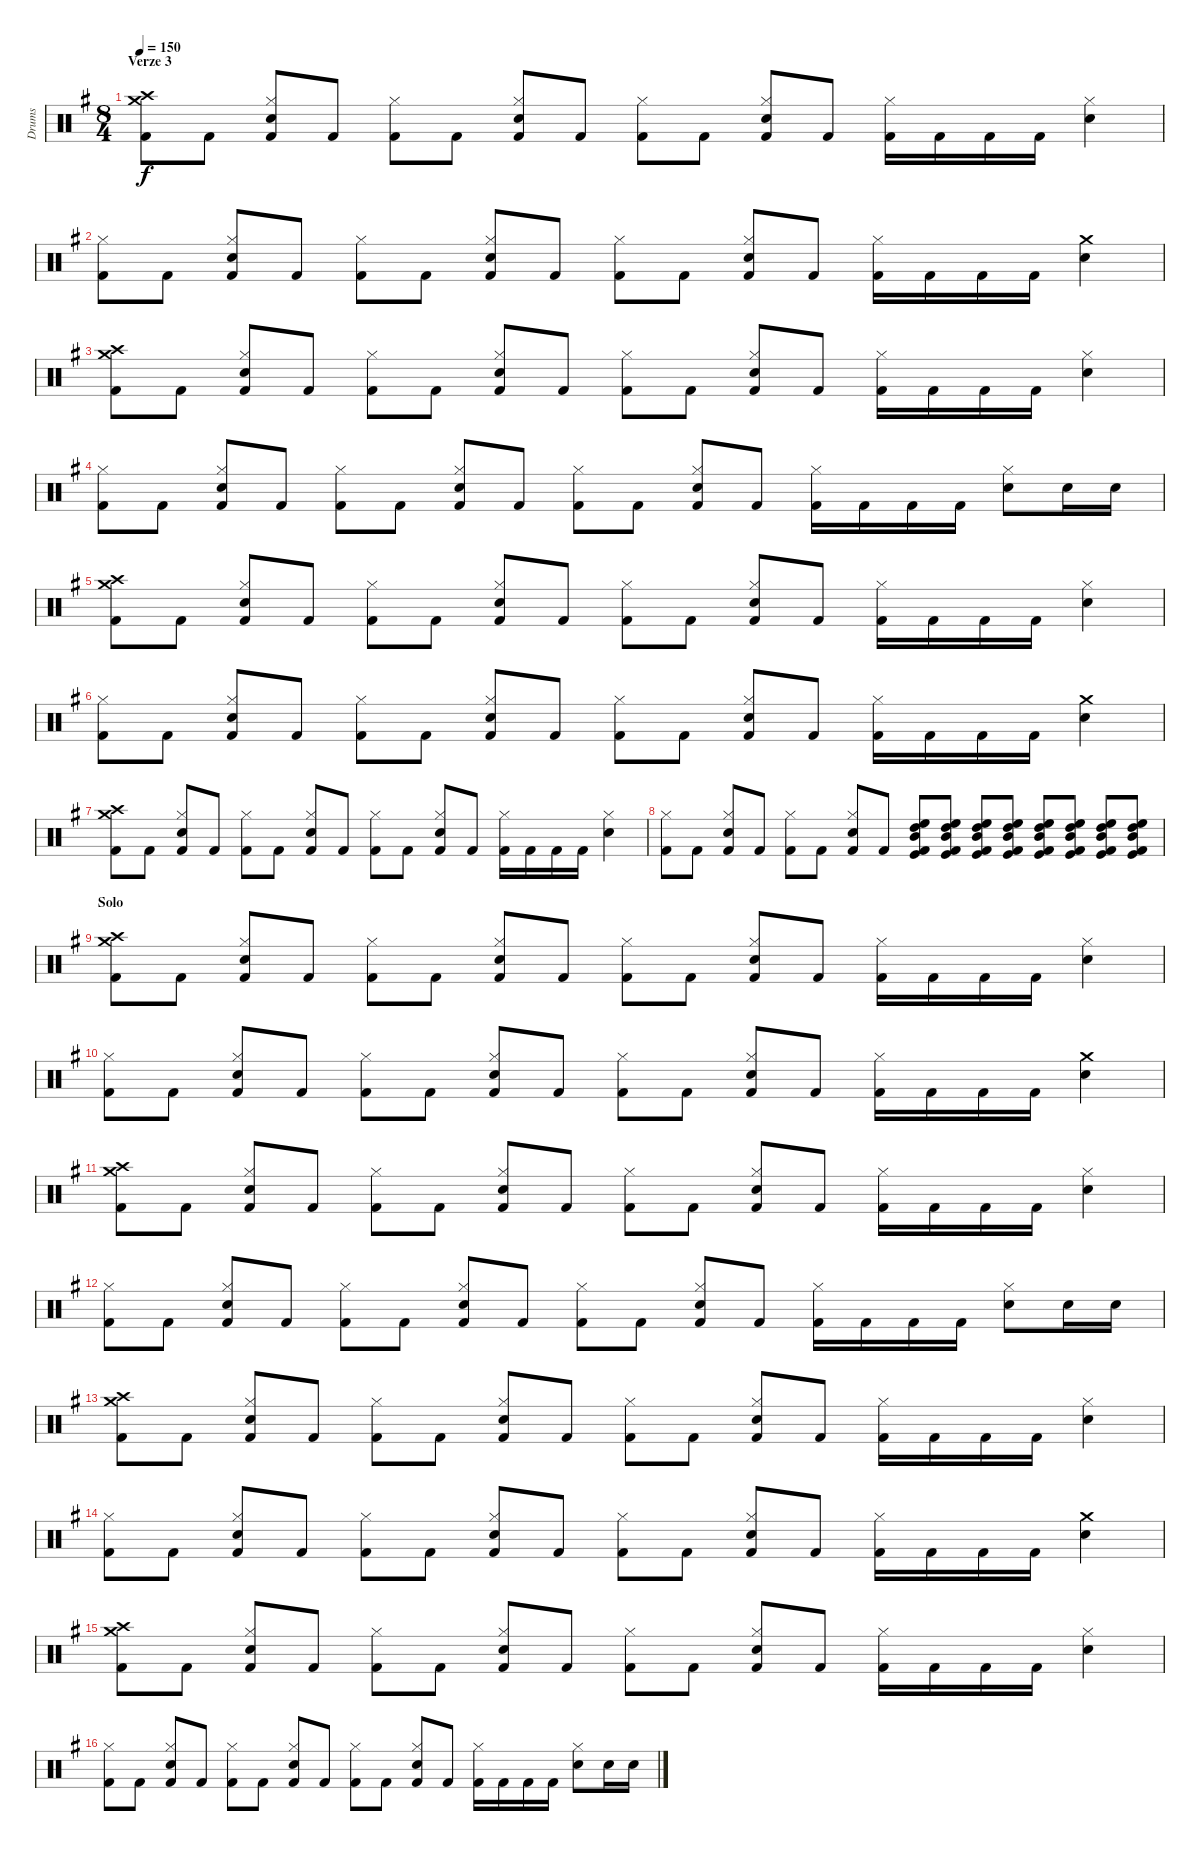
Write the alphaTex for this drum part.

\track ("Drums" "Drums") {instrument percussion}
\staff {score}
\articulation defaults
\ts (8 4)
\section ("" "Verze 3")
\tempo 150
\clef neutral
\ks g
("Crash medium (hit)" "Crash high (hit)" "Kick (hit) 2").8{dy f} "Kick (hit) 2".8 ("Hi-Hat (closed)" "Snare (hit) 2" "Kick (hit) 2").8 "Kick (hit) 2".8 ("Hi-Hat (closed)" "Kick (hit) 2").8 "Kick (hit) 2".8 ("Hi-Hat (closed)" "Snare (hit) 2" "Kick (hit) 2").8 "Kick (hit) 2".8 ("Hi-Hat (closed)" "Kick (hit) 2").8 "Kick (hit) 2".8 ("Hi-Hat (closed)" "Snare (hit) 2" "Kick (hit) 2").8 "Kick (hit) 2".8 ("Hi-Hat (closed)" "Kick (hit) 2").16 "Kick (hit) 2".16 "Kick (hit) 2".16 "Kick (hit) 2".16 ("Hi-Hat (closed)" "Snare (hit) 2").4 |
("Hi-Hat (closed)" "Kick (hit) 2").8 "Kick (hit) 2".8 ("Hi-Hat (closed)" "Snare (hit) 2" "Kick (hit) 2").8 "Kick (hit) 2".8 ("Hi-Hat (closed)" "Kick (hit) 2").8 "Kick (hit) 2".8 ("Hi-Hat (closed)" "Snare (hit) 2" "Kick (hit) 2").8 "Kick (hit) 2".8 ("Hi-Hat (closed)" "Kick (hit) 2").8 "Kick (hit) 2".8 ("Hi-Hat (closed)" "Snare (hit) 2" "Kick (hit) 2").8 "Kick (hit) 2".8 ("Hi-Hat (closed)" "Kick (hit) 2").16 "Kick (hit) 2".16 "Kick (hit) 2".16 "Kick (hit) 2".16 ("Crash medium (hit)" "Snare (hit) 2").4 |
("Crash medium (hit)" "Crash high (hit)" "Kick (hit) 2").8 "Kick (hit) 2".8 ("Hi-Hat (closed)" "Snare (hit) 2" "Kick (hit) 2").8 "Kick (hit) 2".8 ("Hi-Hat (closed)" "Kick (hit) 2").8 "Kick (hit) 2".8 ("Hi-Hat (closed)" "Snare (hit) 2" "Kick (hit) 2").8 "Kick (hit) 2".8 ("Hi-Hat (closed)" "Kick (hit) 2").8 "Kick (hit) 2".8 ("Hi-Hat (closed)" "Snare (hit) 2" "Kick (hit) 2").8 "Kick (hit) 2".8 ("Hi-Hat (closed)" "Kick (hit) 2").16 "Kick (hit) 2".16 "Kick (hit) 2".16 "Kick (hit) 2".16 ("Hi-Hat (closed)" "Snare (hit) 2").4 |
("Hi-Hat (closed)" "Kick (hit) 2").8 "Kick (hit) 2".8 ("Hi-Hat (closed)" "Snare (hit) 2" "Kick (hit) 2").8 "Kick (hit) 2".8 ("Hi-Hat (closed)" "Kick (hit) 2").8 "Kick (hit) 2".8 ("Hi-Hat (closed)" "Snare (hit) 2" "Kick (hit) 2").8 "Kick (hit) 2".8 ("Hi-Hat (closed)" "Kick (hit) 2").8 "Kick (hit) 2".8 ("Hi-Hat (closed)" "Snare (hit) 2" "Kick (hit) 2").8 "Kick (hit) 2".8 ("Hi-Hat (closed)" "Kick (hit) 2").16 "Kick (hit) 2".16 "Kick (hit) 2".16 "Kick (hit) 2".16 ("Hi-Hat (closed)" "Snare (hit) 2").8 "Snare (hit) 2".16 "Snare (hit) 2".16 |
("Crash medium (hit)" "Crash high (hit)" "Kick (hit) 2").8 "Kick (hit) 2".8 ("Hi-Hat (closed)" "Snare (hit) 2" "Kick (hit) 2").8 "Kick (hit) 2".8 ("Hi-Hat (closed)" "Kick (hit) 2").8 "Kick (hit) 2".8 ("Hi-Hat (closed)" "Snare (hit) 2" "Kick (hit) 2").8 "Kick (hit) 2".8 ("Hi-Hat (closed)" "Kick (hit) 2").8 "Kick (hit) 2".8 ("Hi-Hat (closed)" "Snare (hit) 2" "Kick (hit) 2").8 "Kick (hit) 2".8 ("Hi-Hat (closed)" "Kick (hit) 2").16 "Kick (hit) 2".16 "Kick (hit) 2".16 "Kick (hit) 2".16 ("Hi-Hat (closed)" "Snare (hit) 2").4 |
("Hi-Hat (closed)" "Kick (hit) 2").8 "Kick (hit) 2".8 ("Hi-Hat (closed)" "Snare (hit) 2" "Kick (hit) 2").8 "Kick (hit) 2".8 ("Hi-Hat (closed)" "Kick (hit) 2").8 "Kick (hit) 2".8 ("Hi-Hat (closed)" "Snare (hit) 2" "Kick (hit) 2").8 "Kick (hit) 2".8 ("Hi-Hat (closed)" "Kick (hit) 2").8 "Kick (hit) 2".8 ("Hi-Hat (closed)" "Snare (hit) 2" "Kick (hit) 2").8 "Kick (hit) 2".8 ("Hi-Hat (closed)" "Kick (hit) 2").16 "Kick (hit) 2".16 "Kick (hit) 2".16 "Kick (hit) 2".16 ("Crash medium (hit)" "Snare (hit) 2").4 |
("Crash medium (hit)" "Crash high (hit)" "Kick (hit) 2").8 "Kick (hit) 2".8 ("Hi-Hat (closed)" "Snare (hit) 2" "Kick (hit) 2").8 "Kick (hit) 2".8 ("Hi-Hat (closed)" "Kick (hit) 2").8 "Kick (hit) 2".8 ("Hi-Hat (closed)" "Snare (hit) 2" "Kick (hit) 2").8 "Kick (hit) 2".8 ("Hi-Hat (closed)" "Kick (hit) 2").8 "Kick (hit) 2".8 ("Hi-Hat (closed)" "Snare (hit) 2" "Kick (hit) 2").8 "Kick (hit) 2".8 ("Hi-Hat (closed)" "Kick (hit) 2").16 "Kick (hit) 2".16 "Kick (hit) 2".16 "Kick (hit) 2".16 ("Hi-Hat (closed)" "Snare (hit) 2").4 |
("Hi-Hat (closed)" "Kick (hit) 2").8 "Kick (hit) 2".8 ("Hi-Hat (closed)" "Snare (hit) 2" "Kick (hit) 2").8 "Kick (hit) 2".8 ("Hi-Hat (closed)" "Kick (hit) 2").8 "Kick (hit) 2".8 ("Hi-Hat (closed)" "Snare (hit) 2" "Kick (hit) 2").8 "Kick (hit) 2".8 ("High Floor Tom (hit)" "Mid Tom (hit)" "High Tom (hit)" "Kick (hit) 2" "Kick (hit)").8 ("High Floor Tom (hit)" "Mid Tom (hit)" "High Tom (hit)" "Kick (hit) 2" "Kick (hit)").8 ("High Floor Tom (hit)" "Mid Tom (hit)" "High Tom (hit)" "Kick (hit) 2" "Kick (hit)").8 ("High Floor Tom (hit)" "Mid Tom (hit)" "High Tom (hit)" "Kick (hit) 2" "Kick (hit)").8 ("High Floor Tom (hit)" "Mid Tom (hit)" "High Tom (hit)" "Kick (hit) 2" "Kick (hit)").8 ("High Floor Tom (hit)" "Mid Tom (hit)" "High Tom (hit)" "Kick (hit) 2" "Kick (hit)").8 ("High Floor Tom (hit)" "Mid Tom (hit)" "High Tom (hit)" "Kick (hit) 2" "Kick (hit)").8 ("High Floor Tom (hit)" "Mid Tom (hit)" "High Tom (hit)" "Kick (hit) 2" "Kick (hit)").8 |
\section ("" "Solo")
("Crash medium (hit)" "Crash high (hit)" "Kick (hit) 2").8 "Kick (hit) 2".8 ("Hi-Hat (closed)" "Snare (hit) 2" "Kick (hit) 2").8 "Kick (hit) 2".8 ("Hi-Hat (closed)" "Kick (hit) 2").8 "Kick (hit) 2".8 ("Hi-Hat (closed)" "Snare (hit) 2" "Kick (hit) 2").8 "Kick (hit) 2".8 ("Hi-Hat (closed)" "Kick (hit) 2").8 "Kick (hit) 2".8 ("Hi-Hat (closed)" "Snare (hit) 2" "Kick (hit) 2").8 "Kick (hit) 2".8 ("Hi-Hat (closed)" "Kick (hit) 2").16 "Kick (hit) 2".16 "Kick (hit) 2".16 "Kick (hit) 2".16 ("Hi-Hat (closed)" "Snare (hit) 2").4 |
("Hi-Hat (closed)" "Kick (hit) 2").8 "Kick (hit) 2".8 ("Hi-Hat (closed)" "Snare (hit) 2" "Kick (hit) 2").8 "Kick (hit) 2".8 ("Hi-Hat (closed)" "Kick (hit) 2").8 "Kick (hit) 2".8 ("Hi-Hat (closed)" "Snare (hit) 2" "Kick (hit) 2").8 "Kick (hit) 2".8 ("Hi-Hat (closed)" "Kick (hit) 2").8 "Kick (hit) 2".8 ("Hi-Hat (closed)" "Snare (hit) 2" "Kick (hit) 2").8 "Kick (hit) 2".8 ("Hi-Hat (closed)" "Kick (hit) 2").16 "Kick (hit) 2".16 "Kick (hit) 2".16 "Kick (hit) 2".16 ("Crash medium (hit)" "Snare (hit) 2").4 |
("Crash medium (hit)" "Crash high (hit)" "Kick (hit) 2").8 "Kick (hit) 2".8 ("Hi-Hat (closed)" "Snare (hit) 2" "Kick (hit) 2").8 "Kick (hit) 2".8 ("Hi-Hat (closed)" "Kick (hit) 2").8 "Kick (hit) 2".8 ("Hi-Hat (closed)" "Snare (hit) 2" "Kick (hit) 2").8 "Kick (hit) 2".8 ("Hi-Hat (closed)" "Kick (hit) 2").8 "Kick (hit) 2".8 ("Hi-Hat (closed)" "Snare (hit) 2" "Kick (hit) 2").8 "Kick (hit) 2".8 ("Hi-Hat (closed)" "Kick (hit) 2").16 "Kick (hit) 2".16 "Kick (hit) 2".16 "Kick (hit) 2".16 ("Hi-Hat (closed)" "Snare (hit) 2").4 |
("Hi-Hat (closed)" "Kick (hit) 2").8 "Kick (hit) 2".8 ("Hi-Hat (closed)" "Snare (hit) 2" "Kick (hit) 2").8 "Kick (hit) 2".8 ("Hi-Hat (closed)" "Kick (hit) 2").8 "Kick (hit) 2".8 ("Hi-Hat (closed)" "Snare (hit) 2" "Kick (hit) 2").8 "Kick (hit) 2".8 ("Hi-Hat (closed)" "Kick (hit) 2").8 "Kick (hit) 2".8 ("Hi-Hat (closed)" "Snare (hit) 2" "Kick (hit) 2").8 "Kick (hit) 2".8 ("Hi-Hat (closed)" "Kick (hit) 2").16 "Kick (hit) 2".16 "Kick (hit) 2".16 "Kick (hit) 2".16 ("Hi-Hat (closed)" "Snare (hit) 2").8 "Snare (hit) 2".16 "Snare (hit) 2".16 |
("Crash medium (hit)" "Crash high (hit)" "Kick (hit) 2").8 "Kick (hit) 2".8 ("Hi-Hat (closed)" "Snare (hit) 2" "Kick (hit) 2").8 "Kick (hit) 2".8 ("Hi-Hat (closed)" "Kick (hit) 2").8 "Kick (hit) 2".8 ("Hi-Hat (closed)" "Snare (hit) 2" "Kick (hit) 2").8 "Kick (hit) 2".8 ("Hi-Hat (closed)" "Kick (hit) 2").8 "Kick (hit) 2".8 ("Hi-Hat (closed)" "Snare (hit) 2" "Kick (hit) 2").8 "Kick (hit) 2".8 ("Hi-Hat (closed)" "Kick (hit) 2").16 "Kick (hit) 2".16 "Kick (hit) 2".16 "Kick (hit) 2".16 ("Hi-Hat (closed)" "Snare (hit) 2").4 |
("Hi-Hat (closed)" "Kick (hit) 2").8 "Kick (hit) 2".8 ("Hi-Hat (closed)" "Snare (hit) 2" "Kick (hit) 2").8 "Kick (hit) 2".8 ("Hi-Hat (closed)" "Kick (hit) 2").8 "Kick (hit) 2".8 ("Hi-Hat (closed)" "Snare (hit) 2" "Kick (hit) 2").8 "Kick (hit) 2".8 ("Hi-Hat (closed)" "Kick (hit) 2").8 "Kick (hit) 2".8 ("Hi-Hat (closed)" "Snare (hit) 2" "Kick (hit) 2").8 "Kick (hit) 2".8 ("Hi-Hat (closed)" "Kick (hit) 2").16 "Kick (hit) 2".16 "Kick (hit) 2".16 "Kick (hit) 2".16 ("Crash medium (hit)" "Snare (hit) 2").4 |
("Crash medium (hit)" "Crash high (hit)" "Kick (hit) 2").8 "Kick (hit) 2".8 ("Hi-Hat (closed)" "Snare (hit) 2" "Kick (hit) 2").8 "Kick (hit) 2".8 ("Hi-Hat (closed)" "Kick (hit) 2").8 "Kick (hit) 2".8 ("Hi-Hat (closed)" "Snare (hit) 2" "Kick (hit) 2").8 "Kick (hit) 2".8 ("Hi-Hat (closed)" "Kick (hit) 2").8 "Kick (hit) 2".8 ("Hi-Hat (closed)" "Snare (hit) 2" "Kick (hit) 2").8 "Kick (hit) 2".8 ("Hi-Hat (closed)" "Kick (hit) 2").16 "Kick (hit) 2".16 "Kick (hit) 2".16 "Kick (hit) 2".16 ("Hi-Hat (closed)" "Snare (hit) 2").4 |
("Hi-Hat (closed)" "Kick (hit) 2").8 "Kick (hit) 2".8 ("Hi-Hat (closed)" "Snare (hit) 2" "Kick (hit) 2").8 "Kick (hit) 2".8 ("Hi-Hat (closed)" "Kick (hit) 2").8 "Kick (hit) 2".8 ("Hi-Hat (closed)" "Snare (hit) 2" "Kick (hit) 2").8 "Kick (hit) 2".8 ("Hi-Hat (closed)" "Kick (hit) 2").8 "Kick (hit) 2".8 ("Hi-Hat (closed)" "Snare (hit) 2" "Kick (hit) 2").8 "Kick (hit) 2".8 ("Hi-Hat (closed)" "Kick (hit) 2").16 "Kick (hit) 2".16 "Kick (hit) 2".16 "Kick (hit) 2".16 ("Hi-Hat (closed)" "Snare (hit) 2").8 "Snare (hit) 2".16 "Snare (hit) 2".16
